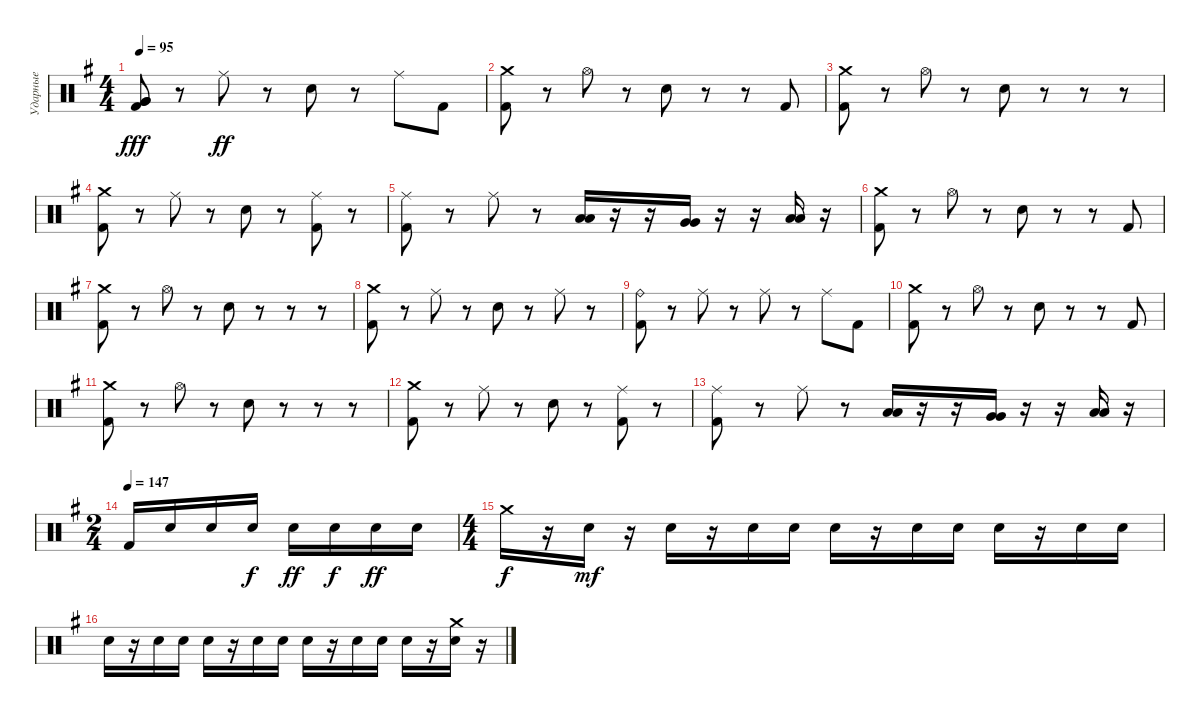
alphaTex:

\track ("Ударные" "Ударные") {instrument percussion}
\staff {score}
\articulation defaults
\ts (4 4)
\tempo 95
\clef neutral
\ks eminor
("Very Low Tom (hit)" "Very Low Tom (hit)" "Kick (hit) 2").8{dy fff} r.8 "Ride (middle)".8{dy ff} r.8 "Electric Snare (hit)".8 r.8 "Ride (middle)".8 "Kick (hit) 2".8 |
("Crash medium (hit)" "Kick (hit) 2").8 r.8 "Hi-Hat (open)".8 r.8 "Electric Snare (hit)".8 r.8 r.8 "Kick (hit) 2".8 |
("Crash medium (hit)" "Kick (hit) 2").8 r.8 "Hi-Hat (open)".8 r.8 "Electric Snare (hit)".8 r.8 r.8 r.8 |
("Crash medium (hit)" "Kick (hit) 2").8 r.8 "Ride (middle)".8 r.8 "Electric Snare (hit)".8 r.8 ("Ride (middle)" "Kick (hit) 2").8 r.8 |
("Ride (middle)" "Kick (hit) 2").8 r.8 "Ride (middle)".8 r.8 ("Low Tom (hit)" "Low Tom (hit)").16 r.16 r.16 ("Very Low Tom (hit)" "Very Low Tom (hit)").16 r.16 r.16 ("Low Floor Tom (hit)" "Low Floor Tom (hit)").16 r.16 |
("Crash medium (hit)" "Kick (hit) 2").8 r.8 "Hi-Hat (open)".8 r.8 "Electric Snare (hit)".8 r.8 r.8 "Kick (hit) 2".8 |
("Crash medium (hit)" "Kick (hit) 2").8 r.8 "Hi-Hat (open)".8 r.8 "Electric Snare (hit)".8 r.8 r.8 r.8 |
("Crash medium (hit)" "Kick (hit) 2").8 r.8 "Ride (middle)".8 r.8 "Electric Snare (hit)".8 r.8 "Ride (middle)".8 r.8 |
("Ride (bell)" "Kick (hit) 2").8 r.8 "Ride (middle)".8 r.8 "Ride (middle)".8 r.8 "Ride (middle)".8 "Kick (hit) 2".8 |
("Crash medium (hit)" "Kick (hit) 2").8 r.8 "Hi-Hat (open)".8 r.8 "Electric Snare (hit)".8 r.8 r.8 "Kick (hit) 2".8 |
("Crash medium (hit)" "Kick (hit) 2").8 r.8 "Hi-Hat (open)".8 r.8 "Electric Snare (hit)".8 r.8 r.8 r.8 |
("Crash medium (hit)" "Kick (hit) 2").8 r.8 "Ride (middle)".8 r.8 "Electric Snare (hit)".8 r.8 ("Ride (middle)" "Kick (hit) 2").8 r.8 |
("Ride (middle)" "Kick (hit) 2").8 r.8 "Ride (middle)".8 r.8 ("Low Tom (hit)" "Low Tom (hit)").16 r.16 r.16 ("Very Low Tom (hit)" "Very Low Tom (hit)").16 r.16 r.16 ("Low Floor Tom (hit)" "Low Floor Tom (hit)").16 r.16 |
\ts (2 4)
\tempo (147)
"Kick (hit) 2".16 "Electric Snare (hit)".16 "Electric Snare (hit)".16 "Electric Snare (hit)".16{dy f} "Electric Snare (hit)".16{dy ff} "Electric Snare (hit)".16{dy f} "Electric Snare (hit)".16{dy ff} "Electric Snare (hit)".16 |
\ts (4 4)
"Crash medium (hit)".16{dy f} r.16 "Electric Snare (hit)".16{dy mf} r.16 "Electric Snare (hit)".16 r.16 "Electric Snare (hit)".16 "Electric Snare (hit)".16 "Electric Snare (hit)".16 r.16 "Electric Snare (hit)".16 "Electric Snare (hit)".16 "Electric Snare (hit)".16 r.16 "Electric Snare (hit)".16 "Electric Snare (hit)".16 |
"Electric Snare (hit)".16 r.16 "Electric Snare (hit)".16 "Electric Snare (hit)".16 "Electric Snare (hit)".16 r.16 "Electric Snare (hit)".16 "Electric Snare (hit)".16 "Electric Snare (hit)".16 r.16 "Electric Snare (hit)".16 "Electric Snare (hit)".16 "Electric Snare (hit)".16 r.16 ("Crash medium (hit)" "Electric Snare (hit)").16 r.16
